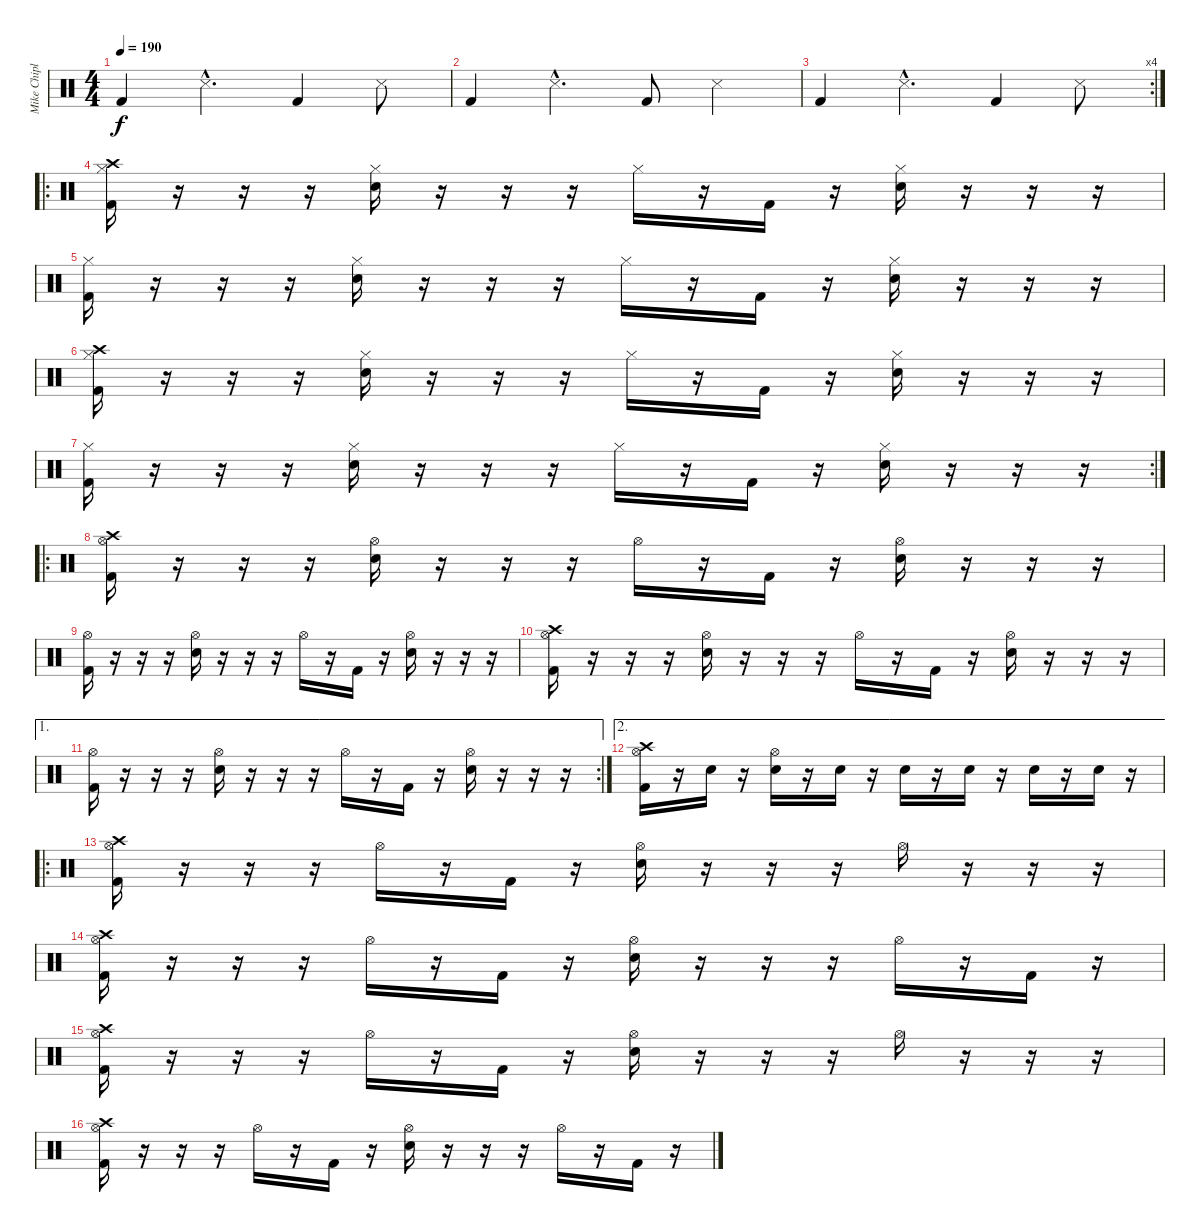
\track ("Mike Chiplin" "Mike Chipl") {instrument percussion}
\staff {score}
\articulation defaults
\ts (4 4)
\tempo 190
\clef neutral
\ks c "Kick (hit) 2".4{dy f} "Snare (side stick) 3"{hac}.4{d} "Kick (hit) 2".4 "Snare (side stick) 3".8
|
"Kick (hit) 2".4 "Snare (side stick) 3"{hac}.4{d} "Kick (hit) 2".8 "Snare (side stick) 3".4 |
\rc 4 "Kick (hit) 2".4 "Snare (side stick) 3"{hac}.4{d} "Kick (hit) 2".4 "Snare (side stick) 3".8
|
\ro
("Hi-Hat (closed)" "Kick (hit) 2" "Crash high (hit)").16 r.16 r.16 r.16 ("Hi-Hat (closed)" "Snare (hit) 2").16 r.16 r.16 r.16 "Hi-Hat (closed)".16 r.16 "Kick (hit) 2".16 r.16 ("Hi-Hat (closed)" "Snare (hit) 2").16 r.16 r.16 r.16 |
("Hi-Hat (closed)" "Kick (hit) 2").16 r.16 r.16 r.16 ("Hi-Hat (closed)" "Snare (hit) 2").16 r.16 r.16 r.16 "Hi-Hat (closed)".16 r.16 "Kick (hit) 2".16 r.16 ("Hi-Hat (closed)" "Snare (hit) 2").16 r.16 r.16 r.16 |
("Hi-Hat (closed)" "Kick (hit) 2" "Crash high (hit)").16 r.16 r.16 r.16 ("Hi-Hat (closed)" "Snare (hit) 2").16 r.16 r.16 r.16 "Hi-Hat (closed)".16 r.16 "Kick (hit) 2".16 r.16 ("Hi-Hat (closed)" "Snare (hit) 2").16 r.16 r.16 r.16 |
\rc 2
("Hi-Hat (closed)" "Kick (hit) 2").16 r.16 r.16 r.16 ("Hi-Hat (closed)" "Snare (hit) 2").16 r.16 r.16 r.16 "Hi-Hat (closed)".16 r.16 "Kick (hit) 2".16 r.16 ("Hi-Hat (closed)" "Snare (hit) 2").16 r.16 r.16 r.16 |
\ro
("Hi-Hat (open)" "Crash high (hit)" "Kick (hit) 2").16 r.16 r.16 r.16 ("Hi-Hat (open)" "Snare (hit) 2").16 r.16 r.16 r.16 "Hi-Hat (open)".16 r.16 "Kick (hit) 2".16 r.16 ("Hi-Hat (open)" "Snare (hit) 2").16 r.16 r.16 r.16 |
("Hi-Hat (open)" "Kick (hit) 2").16 r.16 r.16 r.16 ("Hi-Hat (open)" "Snare (hit) 2").16 r.16 r.16 r.16 "Hi-Hat (open)".16 r.16 "Kick (hit) 2".16 r.16 ("Hi-Hat (open)" "Snare (hit) 2").16 r.16 r.16 r.16 |
("Hi-Hat (open)" "Crash high (hit)" "Kick (hit) 2").16 r.16 r.16 r.16 ("Hi-Hat (open)" "Snare (hit) 2").16 r.16 r.16 r.16 "Hi-Hat (open)".16 r.16 "Kick (hit) 2".16 r.16 ("Hi-Hat (open)" "Snare (hit) 2").16 r.16 r.16 r.16 |
\ae 1
\rc 2
("Hi-Hat (open)" "Kick (hit) 2").16 r.16 r.16 r.16 ("Hi-Hat (open)" "Snare (hit) 2").16 r.16 r.16 r.16 "Hi-Hat (open)".16 r.16 "Kick (hit) 2".16 r.16 ("Hi-Hat (open)" "Snare (hit) 2").16 r.16 r.16 r.16 |
\ae 2
("Hi-Hat (open)" "Crash high (hit)" "Kick (hit) 2").16 r.16 "Snare (hit) 2".16 r.16 ("Hi-Hat (open)" "Snare (hit) 2").16 r.16 "Snare (hit) 2".16 r.16 "Snare (hit) 2".16 r.16 "Snare (hit) 2".16 r.16 "Snare (hit) 2".16 r.16 "Snare (hit) 2".16 r.16 |
\ro
("Hi-Hat (open)" "Kick (hit) 2" "Crash high (hit)").16 r.16 r.16 r.16 "Hi-Hat (open)".16 r.16 "Kick (hit) 2".16 r.16 ("Hi-Hat (open)" "Snare (hit) 2").16 r.16 r.16 r.16 "Hi-Hat (open)".16 r.16 r.16 r.16 |
("Hi-Hat (open)" "Kick (hit) 2" "Crash high (hit)").16 r.16 r.16 r.16 "Hi-Hat (open)".16 r.16 "Kick (hit) 2".16 r.16 ("Hi-Hat (open)" "Snare (hit) 2").16 r.16 r.16 r.16 "Hi-Hat (open)".16 r.16 "Kick (hit) 2".16 r.16 |
("Hi-Hat (open)" "Kick (hit) 2" "Crash high (hit)").16 r.16 r.16 r.16 "Hi-Hat (open)".16 r.16 "Kick (hit) 2".16 r.16 ("Hi-Hat (open)" "Snare (hit) 2").16 r.16 r.16 r.16 "Hi-Hat (open)".16 r.16 r.16 r.16 |
("Hi-Hat (open)" "Kick (hit) 2" "Crash high (hit)").16 r.16 r.16 r.16 "Hi-Hat (open)".16 r.16 "Kick (hit) 2".16 r.16 ("Hi-Hat (open)" "Snare (hit) 2").16 r.16 r.16 r.16 "Hi-Hat (open)".16 r.16 "Kick (hit) 2".16 r.16
